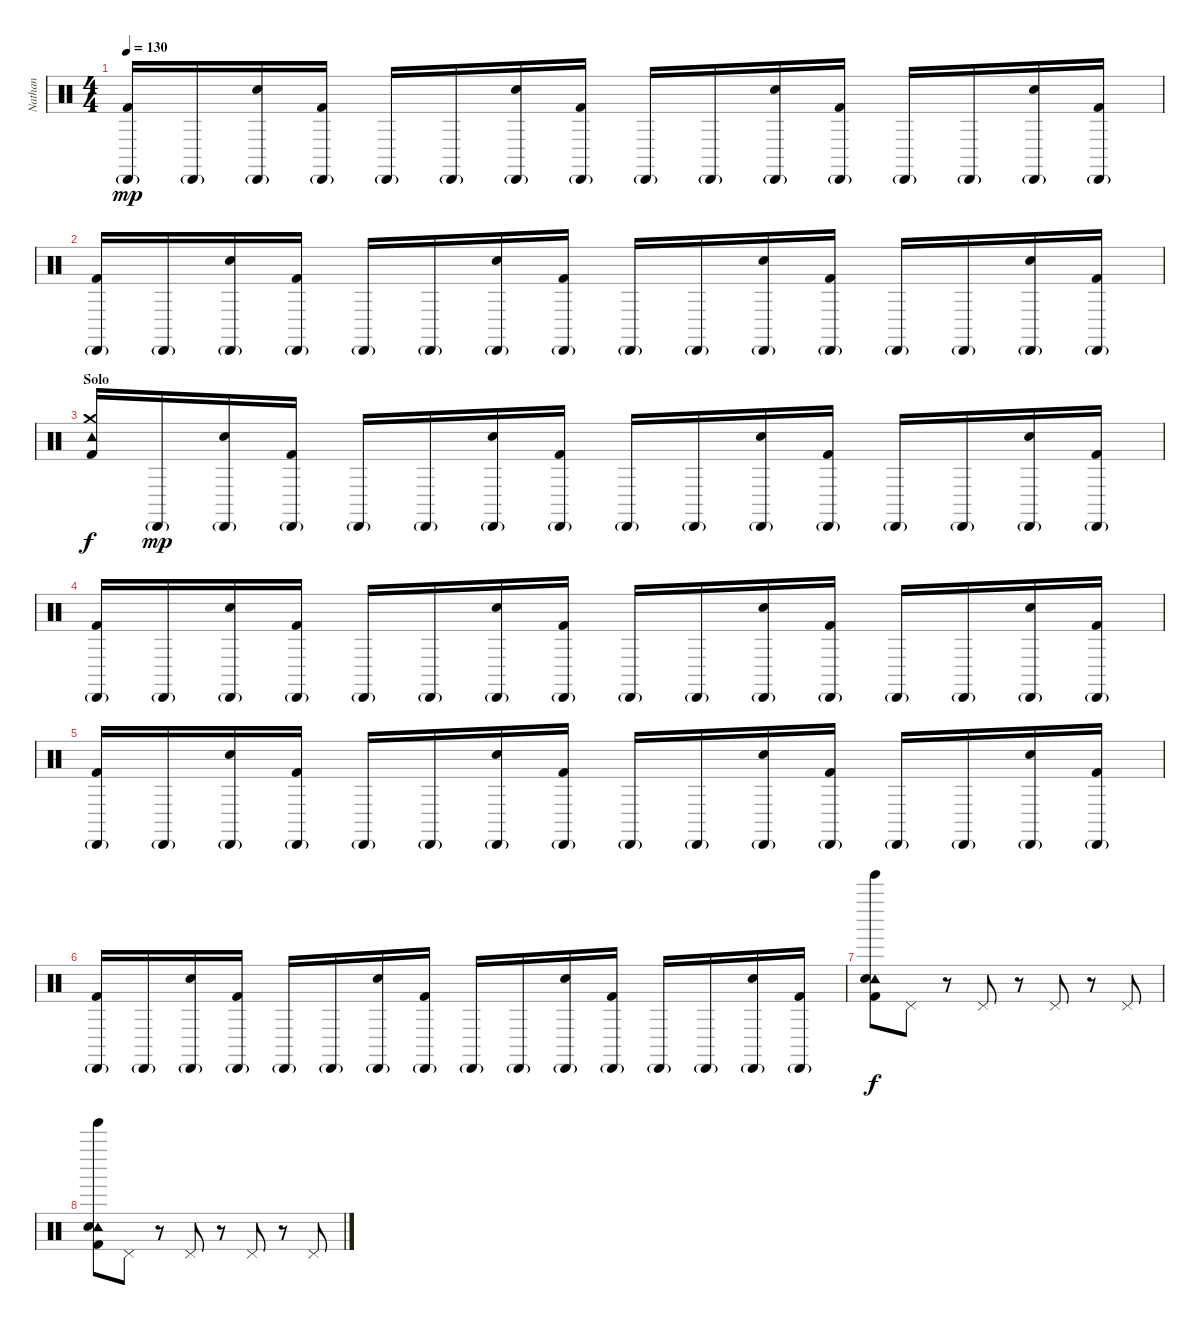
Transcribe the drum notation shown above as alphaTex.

\track ("Nathan" "Nathan") {instrument percussion}
\staff {score}
\articulation defaults
\ts (4 4)
\tempo 130
\clef neutral
\ks c
("Cabasa (hit)"{g} "Kick (hit) 2").16{dy mp} "Cabasa (hit)"{g}.16 ("Cabasa (hit)"{g} "Snare (hit) 2").16 ("Cabasa (hit)"{g} "Kick (hit) 2").16 "Cabasa (hit)"{g}.16 "Cabasa (hit)"{g}.16 ("Cabasa (hit)"{g} "Snare (hit) 2").16 ("Cabasa (hit)"{g} "Kick (hit) 2").16 "Cabasa (hit)"{g}.16 "Cabasa (hit)"{g}.16 ("Cabasa (hit)"{g} "Snare (hit) 2").16 ("Cabasa (hit)"{g} "Kick (hit) 2").16 "Cabasa (hit)"{g}.16 "Cabasa (hit)"{g}.16 ("Cabasa (hit)"{g} "Snare (hit) 2").16 ("Cabasa (hit)"{g} "Kick (hit) 2").16 |
("Cabasa (hit)"{g} "Kick (hit) 2").16 "Cabasa (hit)"{g}.16 ("Cabasa (hit)"{g} "Snare (hit) 2").16 ("Cabasa (hit)"{g} "Kick (hit) 2").16 "Cabasa (hit)"{g}.16 "Cabasa (hit)"{g}.16 ("Cabasa (hit)"{g} "Snare (hit) 2").16 ("Cabasa (hit)"{g} "Kick (hit) 2").16 "Cabasa (hit)"{g}.16 "Cabasa (hit)"{g}.16 ("Cabasa (hit)"{g} "Snare (hit) 2").16 ("Cabasa (hit)"{g} "Kick (hit) 2").16 "Cabasa (hit)"{g}.16 "Cabasa (hit)"{g}.16 ("Cabasa (hit)"{g} "Snare (hit) 2").16 ("Cabasa (hit)"{g} "Kick (hit) 2").16 |
\section ("" "Solo")
("Crash medium (hit)" "Tambourine (hit)" "Kick (hit) 2").16{dy f} "Cabasa (hit)"{g}.16{dy mp} ("Cabasa (hit)"{g} "Snare (hit) 2").16 ("Cabasa (hit)"{g} "Kick (hit) 2").16 "Cabasa (hit)"{g}.16 "Cabasa (hit)"{g}.16 ("Cabasa (hit)"{g} "Snare (hit) 2").16 ("Cabasa (hit)"{g} "Kick (hit) 2").16 "Cabasa (hit)"{g}.16 "Cabasa (hit)"{g}.16 ("Cabasa (hit)"{g} "Snare (hit) 2").16 ("Cabasa (hit)"{g} "Kick (hit) 2").16 "Cabasa (hit)"{g}.16 "Cabasa (hit)"{g}.16 ("Cabasa (hit)"{g} "Snare (hit) 2").16 ("Cabasa (hit)"{g} "Kick (hit) 2").16 |
("Cabasa (hit)"{g} "Kick (hit) 2").16 "Cabasa (hit)"{g}.16 ("Cabasa (hit)"{g} "Snare (hit) 2").16 ("Cabasa (hit)"{g} "Kick (hit) 2").16 "Cabasa (hit)"{g}.16 "Cabasa (hit)"{g}.16 ("Cabasa (hit)"{g} "Snare (hit) 2").16 ("Cabasa (hit)"{g} "Kick (hit) 2").16 "Cabasa (hit)"{g}.16 "Cabasa (hit)"{g}.16 ("Cabasa (hit)"{g} "Snare (hit) 2").16 ("Cabasa (hit)"{g} "Kick (hit) 2").16 "Cabasa (hit)"{g}.16 "Cabasa (hit)"{g}.16 ("Cabasa (hit)"{g} "Snare (hit) 2").16 ("Cabasa (hit)"{g} "Kick (hit) 2").16 |
("Cabasa (hit)"{g} "Kick (hit) 2").16 "Cabasa (hit)"{g}.16 ("Cabasa (hit)"{g} "Snare (hit) 2").16 ("Cabasa (hit)"{g} "Kick (hit) 2").16 "Cabasa (hit)"{g}.16 "Cabasa (hit)"{g}.16 ("Cabasa (hit)"{g} "Snare (hit) 2").16 ("Cabasa (hit)"{g} "Kick (hit) 2").16 "Cabasa (hit)"{g}.16 "Cabasa (hit)"{g}.16 ("Cabasa (hit)"{g} "Snare (hit) 2").16 ("Cabasa (hit)"{g} "Kick (hit) 2").16 "Cabasa (hit)"{g}.16 "Cabasa (hit)"{g}.16 ("Cabasa (hit)"{g} "Snare (hit) 2").16 ("Cabasa (hit)"{g} "Kick (hit) 2").16 |
("Cabasa (hit)"{g} "Kick (hit) 2").16 "Cabasa (hit)"{g}.16 ("Cabasa (hit)"{g} "Snare (hit) 2").16 ("Cabasa (hit)"{g} "Kick (hit) 2").16 "Cabasa (hit)"{g}.16 "Cabasa (hit)"{g}.16 ("Cabasa (hit)"{g} "Snare (hit) 2").16 ("Cabasa (hit)"{g} "Kick (hit) 2").16 "Cabasa (hit)"{g}.16 "Cabasa (hit)"{g}.16 ("Cabasa (hit)"{g} "Snare (hit) 2").16 ("Cabasa (hit)"{g} "Kick (hit) 2").16 "Cabasa (hit)"{g}.16 "Cabasa (hit)"{g}.16 ("Cabasa (hit)"{g} "Snare (hit) 2").16 ("Cabasa (hit)"{g} "Kick (hit) 2").16 |
("Tambourine (hit)" "Tinkle Bell (hit)" "Snare (hit) 2" "Kick (hit) 2").8{dy f} "Pedal Hi-Hat (hit)".8 r.8 "Pedal Hi-Hat (hit)".8 r.8 "Pedal Hi-Hat (hit)".8 r.8 "Pedal Hi-Hat (hit)".8 |
("Tambourine (hit)" "Tinkle Bell (hit)" "Snare (hit) 2" "Kick (hit) 2").8 "Pedal Hi-Hat (hit)".8 r.8 "Pedal Hi-Hat (hit)".8 r.8 "Pedal Hi-Hat (hit)".8 r.8 "Pedal Hi-Hat (hit)".8
